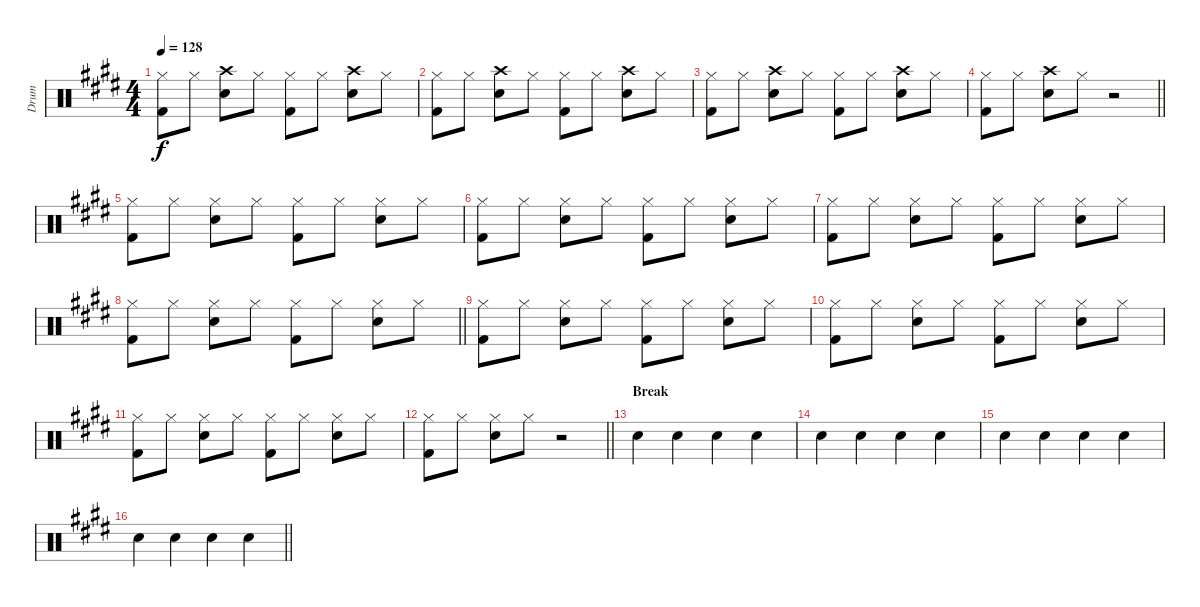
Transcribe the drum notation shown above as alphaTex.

\track ("Drum" "Drum") {instrument percussion}
\staff {score}
\articulation defaults
\ts (4 4)
\tempo 128
\clef neutral
\ks c#minor
("Hi-Hat (closed)" "Kick (hit) 2").8{dy f} "Hi-Hat (closed)".8 ("Crash high (hit)" "Snare (hit) 2").8 "Hi-Hat (closed)".8 ("Hi-Hat (closed)" "Kick (hit) 2").8 "Hi-Hat (closed)".8 ("Crash high (hit)" "Snare (hit) 2").8 "Hi-Hat (closed)".8 |
("Hi-Hat (closed)" "Kick (hit) 2").8 "Hi-Hat (closed)".8 ("Crash high (hit)" "Snare (hit) 2").8 "Hi-Hat (closed)".8 ("Hi-Hat (closed)" "Kick (hit) 2").8 "Hi-Hat (closed)".8 ("Crash high (hit)" "Snare (hit) 2").8 "Hi-Hat (closed)".8 |
("Hi-Hat (closed)" "Kick (hit) 2").8 "Hi-Hat (closed)".8 ("Crash high (hit)" "Snare (hit) 2").8 "Hi-Hat (closed)".8 ("Hi-Hat (closed)" "Kick (hit) 2").8 "Hi-Hat (closed)".8 ("Crash high (hit)" "Snare (hit) 2").8 "Hi-Hat (closed)".8 |
\barLineRight lightlight
("Hi-Hat (closed)" "Kick (hit) 2").8 "Hi-Hat (closed)".8 ("Crash high (hit)" "Snare (hit) 2").8 "Hi-Hat (closed)".8 r.2 |
("Hi-Hat (closed)" "Kick (hit) 2").8 "Hi-Hat (closed)".8 ("Hi-Hat (closed)" "Snare (hit) 2").8 "Hi-Hat (closed)".8 ("Hi-Hat (closed)" "Kick (hit) 2").8 "Hi-Hat (closed)".8 ("Hi-Hat (closed)" "Snare (hit) 2").8 "Hi-Hat (closed)".8 |
("Hi-Hat (closed)" "Kick (hit) 2").8 "Hi-Hat (closed)".8 ("Hi-Hat (closed)" "Snare (hit) 2").8 "Hi-Hat (closed)".8 ("Hi-Hat (closed)" "Kick (hit) 2").8 "Hi-Hat (closed)".8 ("Hi-Hat (closed)" "Snare (hit) 2").8 "Hi-Hat (closed)".8 |
("Hi-Hat (closed)" "Kick (hit) 2").8 "Hi-Hat (closed)".8 ("Hi-Hat (closed)" "Snare (hit) 2").8 "Hi-Hat (closed)".8 ("Hi-Hat (closed)" "Kick (hit) 2").8 "Hi-Hat (closed)".8 ("Hi-Hat (closed)" "Snare (hit) 2").8 "Hi-Hat (closed)".8 |
\barLineRight lightlight
("Hi-Hat (closed)" "Kick (hit) 2").8 "Hi-Hat (closed)".8 ("Hi-Hat (closed)" "Snare (hit) 2").8 "Hi-Hat (closed)".8 ("Hi-Hat (closed)" "Kick (hit) 2").8 "Hi-Hat (closed)".8 ("Hi-Hat (closed)" "Snare (hit) 2").8 "Hi-Hat (closed)".8 |
("Hi-Hat (closed)" "Kick (hit) 2").8 "Hi-Hat (closed)".8 ("Hi-Hat (closed)" "Snare (hit) 2").8 "Hi-Hat (closed)".8 ("Hi-Hat (closed)" "Kick (hit) 2").8 "Hi-Hat (closed)".8 ("Hi-Hat (closed)" "Snare (hit) 2").8 "Hi-Hat (closed)".8 |
("Hi-Hat (closed)" "Kick (hit) 2").8 "Hi-Hat (closed)".8 ("Hi-Hat (closed)" "Snare (hit) 2").8 "Hi-Hat (closed)".8 ("Hi-Hat (closed)" "Kick (hit) 2").8 "Hi-Hat (closed)".8 ("Hi-Hat (closed)" "Snare (hit) 2").8 "Hi-Hat (closed)".8 |
("Hi-Hat (closed)" "Kick (hit) 2").8 "Hi-Hat (closed)".8 ("Hi-Hat (closed)" "Snare (hit) 2").8 "Hi-Hat (closed)".8 ("Hi-Hat (closed)" "Kick (hit) 2").8 "Hi-Hat (closed)".8 ("Hi-Hat (closed)" "Snare (hit) 2").8 "Hi-Hat (closed)".8 |
\barLineRight lightlight
("Hi-Hat (closed)" "Kick (hit) 2").8 "Hi-Hat (closed)".8 ("Hi-Hat (closed)" "Snare (hit) 2").8 "Hi-Hat (closed)".8 r.2 |
\section ("" "Break")
"Snare (hit) 2".4 "Snare (hit) 2".4 "Snare (hit) 2".4 "Snare (hit) 2".4 |
"Snare (hit) 2".4 "Snare (hit) 2".4 "Snare (hit) 2".4 "Snare (hit) 2".4 |
"Snare (hit) 2".4 "Snare (hit) 2".4 "Snare (hit) 2".4 "Snare (hit) 2".4 |
\barLineRight lightlight "Snare (hit) 2".4 "Snare (hit) 2".4 "Snare (hit) 2".4 "Snare (hit) 2".4
